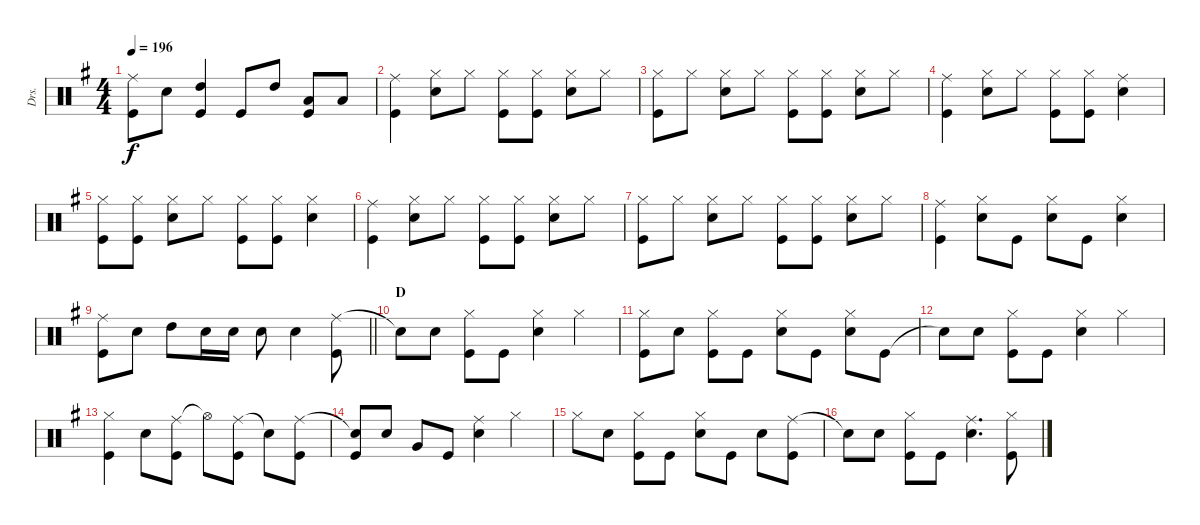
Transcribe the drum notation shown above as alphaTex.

\track ("Drs." "Drs.") {instrument percussion}
\staff {score}
\articulation defaults
\ts (4 4)
\tempo 196
\clef neutral
\ks g
("Ride (middle)" "Kick (hit)").8{dy f} "Snare (hit) 2".8 ("High Tom (hit)" "Kick (hit)").4 "Kick (hit)".8 "High Tom (hit)".8 ("Low Tom (hit)" "Kick (hit)").8 "Low Tom (hit)".8 |
("Ride (middle)" "Kick (hit)").4 ("Hi-Hat (closed)" "Snare (hit) 2").8 "Hi-Hat (closed)".8 ("Hi-Hat (closed)" "Kick (hit)").8 ("Hi-Hat (closed)" "Kick (hit)").8 ("Hi-Hat (closed)" "Snare (hit) 2").8 "Hi-Hat (closed)".8 |
("Hi-Hat (closed)" "Kick (hit)").8 "Hi-Hat (closed)".8 ("Hi-Hat (closed)" "Snare (hit) 2").8 "Hi-Hat (closed)".8 ("Hi-Hat (closed)" "Kick (hit)").8 ("Hi-Hat (closed)" "Kick (hit)").8 ("Hi-Hat (closed)" "Snare (hit) 2").8 "Hi-Hat (closed)".8 |
("Ride (middle)" "Kick (hit)").4 ("Hi-Hat (closed)" "Snare (hit) 2").8 "Hi-Hat (closed)".8 ("Hi-Hat (closed)" "Kick (hit)").8 ("Hi-Hat (closed)" "Kick (hit)").8 ("Ride (middle)" "Snare (hit) 2").4 |
("Hi-Hat (closed)" "Kick (hit)").8 ("Hi-Hat (closed)" "Kick (hit)").8 ("Hi-Hat (closed)" "Snare (hit) 2").8 "Hi-Hat (closed)".8 ("Hi-Hat (closed)" "Kick (hit)").8 ("Hi-Hat (closed)" "Kick (hit)").8 ("Hi-Hat (closed)" "Snare (hit) 2").4 |
("Ride (middle)" "Kick (hit)").4 ("Hi-Hat (closed)" "Snare (hit) 2").8 "Hi-Hat (closed)".8 ("Hi-Hat (closed)" "Kick (hit)").8 ("Hi-Hat (closed)" "Kick (hit)").8 ("Hi-Hat (closed)" "Snare (hit) 2").8 "Hi-Hat (closed)".8 |
("Hi-Hat (closed)" "Kick (hit)").8 "Hi-Hat (closed)".8 ("Hi-Hat (closed)" "Snare (hit) 2").8 "Hi-Hat (closed)".8 ("Hi-Hat (closed)" "Kick (hit)").8 ("Hi-Hat (closed)" "Kick (hit)").8 ("Hi-Hat (closed)" "Snare (hit) 2").8 "Hi-Hat (closed)".8 |
("Ride (middle)" "Kick (hit)").4 ("Hi-Hat (closed)" "Snare (hit) 2").8 "Kick (hit)".8 ("Hi-Hat (closed)" "Snare (hit) 2").8 "Kick (hit)".8 ("Hi-Hat (closed)" "Snare (hit) 2").4 |
\barLineRight lightlight
("Ride (middle)" "Kick (hit)").8 "Snare (hit) 2".8 "High Tom (hit)".8 "Snare (hit) 2".16 "Snare (hit) 2".16 "Snare (hit) 2".8 "Snare (hit) 2".4 ("Ride (middle)" "Kick (hit)").8 |
\section ("" "D")
"Snare (hit)"{t}.8 "Snare (hit) 2".8 ("Hi-Hat (closed)" "Kick (hit)").8 "Kick (hit)".8 ("Hi-Hat (closed)" "Snare (hit) 2").4 "Hi-Hat (closed)".4 |
("Hi-Hat (closed)" "Kick (hit)").8 "Snare (hit) 2".8 ("Hi-Hat (closed)" "Kick (hit)").8 "Kick (hit)".8 ("Hi-Hat (closed)" "Snare (hit) 2").8 "Kick (hit)".8 ("Hi-Hat (closed)" "Snare (hit) 2").8 "Kick (hit)".8 |
"Snare (hit)"{t}.8 "Snare (hit) 2".8 ("Hi-Hat (closed)" "Kick (hit)").8 "Kick (hit)".8 ("Hi-Hat (closed)" "Snare (hit) 2").4 "Hi-Hat (closed)".4 |
("Hi-Hat (closed)" "Kick (hit)").4 "Snare (hit) 2".8 ("Ride (middle)" "Kick (hit)").8 "Hi-Hat (open)"{t}.8 ("Ride (middle)" "Kick (hit)").8 "Snare (hit)"{t}.8 ("Ride (middle)" "Kick (hit)").8 |
("Snare (hit)"{t} "Kick (hit)").8 "Snare (hit) 2".8 "Very Low Tom (hit)".8 "Kick (hit)".8 ("Ride (middle)" "Snare (hit) 2").4 "Hi-Hat (closed)".4 |
"Hi-Hat (closed)".8 "Snare (hit) 2".8 ("Hi-Hat (closed)" "Kick (hit)").8 "Kick (hit)".8 ("Hi-Hat (closed)" "Snare (hit) 2").8 "Kick (hit)".8 "Snare (hit) 2".8 ("Ride (middle)" "Kick (hit)").8 |
"Snare (hit)"{t}.8 "Snare (hit) 2".8 ("Hi-Hat (closed)" "Kick (hit)").8 "Kick (hit)".8 ("Ride (middle)" "Snare (hit) 2").4{d} ("Hi-Hat (closed)" "Kick (hit)").8
